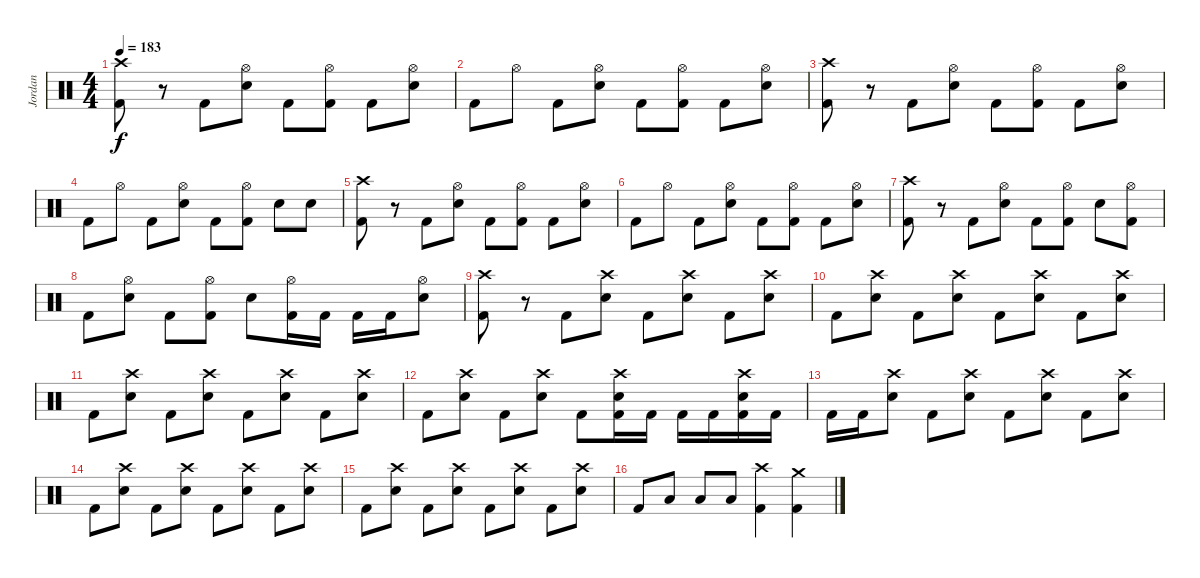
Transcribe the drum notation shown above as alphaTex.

\track ("Jordan" "Jordan") {instrument percussion bank 82}
\staff {score}
\articulation defaults
\ts (4 4)
\tempo 183
\clef neutral
\ks c
("Crash high (hit)" "Kick (hit) 2").8{dy f} r.8 "Kick (hit) 2".8{beam merge} ("Hi-Hat (open)" "Snare (hit) 2").8 "Kick (hit) 2".8{beam merge} ("Hi-Hat (open)" "Kick (hit) 2").8 "Kick (hit) 2".8{beam merge} ("Hi-Hat (open)" "Snare (hit) 2").8 |
"Kick (hit) 2".8{beam merge} "Hi-Hat (open)".8 "Kick (hit) 2".8{beam merge} ("Hi-Hat (open)" "Snare (hit) 2").8 "Kick (hit) 2".8{beam merge} ("Hi-Hat (open)" "Kick (hit) 2").8 "Kick (hit) 2".8{beam merge} ("Hi-Hat (open)" "Snare (hit) 2").8 |
("Crash high (hit)" "Kick (hit) 2").8 r.8 "Kick (hit) 2".8{beam merge} ("Hi-Hat (open)" "Snare (hit) 2").8 "Kick (hit) 2".8{beam merge} ("Hi-Hat (open)" "Kick (hit) 2").8 "Kick (hit) 2".8{beam merge} ("Hi-Hat (open)" "Snare (hit) 2").8 |
"Kick (hit) 2".8{beam merge} "Hi-Hat (open)".8 "Kick (hit) 2".8{beam merge} ("Hi-Hat (open)" "Snare (hit) 2").8 "Kick (hit) 2".8{beam merge} ("Hi-Hat (open)" "Kick (hit) 2").8 "Snare (hit) 2".8{beam merge} "Snare (hit) 2".8 |
("Crash high (hit)" "Kick (hit) 2").8 r.8 "Kick (hit) 2".8{beam merge} ("Hi-Hat (open)" "Snare (hit) 2").8 "Kick (hit) 2".8{beam merge} ("Hi-Hat (open)" "Kick (hit) 2").8 "Kick (hit) 2".8{beam merge} ("Hi-Hat (open)" "Snare (hit) 2").8 |
"Kick (hit) 2".8{beam merge} "Hi-Hat (open)".8 "Kick (hit) 2".8{beam merge} ("Hi-Hat (open)" "Snare (hit) 2").8 "Kick (hit) 2".8{beam merge} ("Hi-Hat (open)" "Kick (hit) 2").8 "Kick (hit) 2".8{beam merge} ("Hi-Hat (open)" "Snare (hit) 2").8 |
("Crash high (hit)" "Kick (hit) 2").8 r.8 "Kick (hit) 2".8{beam merge} ("Hi-Hat (open)" "Snare (hit) 2").8 "Kick (hit) 2".8{beam merge} ("Hi-Hat (open)" "Kick (hit) 2").8 "Snare (hit) 2".8{beam merge} ("Hi-Hat (open)" "Kick (hit) 2").8 |
"Kick (hit) 2".8{beam merge} ("Hi-Hat (open)" "Snare (hit) 2").8 "Kick (hit) 2".8{beam merge} ("Hi-Hat (open)" "Kick (hit) 2").8 "Snare (hit) 2".8{beam merge} ("Hi-Hat (open)" "Kick (hit) 2").16 "Kick (hit) 2".16 "Kick (hit) 2".16 "Kick (hit) 2".16 ("Hi-Hat (open)" "Snare (hit) 2").8 |
("Crash high (hit)" "Kick (hit) 2").8 r.8 "Kick (hit) 2".8{beam merge} ("Crash high (hit)" "Snare (hit) 2").8 "Kick (hit) 2".8{beam merge} ("Crash high (hit)" "Snare (hit) 2").8 "Kick (hit) 2".8{beam merge} ("Crash high (hit)" "Snare (hit) 2").8 |
"Kick (hit) 2".8{beam merge} ("Crash high (hit)" "Snare (hit) 2").8 "Kick (hit) 2".8{beam merge} ("Crash high (hit)" "Snare (hit) 2").8 "Kick (hit) 2".8{beam merge} ("Crash high (hit)" "Snare (hit) 2").8 "Kick (hit) 2".8{beam merge} ("Crash high (hit)" "Snare (hit) 2").8 |
"Kick (hit) 2".8{beam merge} ("Crash high (hit)" "Snare (hit) 2").8 "Kick (hit) 2".8{beam merge} ("Crash high (hit)" "Snare (hit) 2").8 "Kick (hit) 2".8{beam merge} ("Crash high (hit)" "Snare (hit) 2").8 "Kick (hit) 2".8{beam merge} ("Crash high (hit)" "Snare (hit) 2").8 |
"Kick (hit) 2".8{beam merge} ("Crash high (hit)" "Snare (hit) 2").8 "Kick (hit) 2".8{beam merge} ("Crash high (hit)" "Snare (hit) 2").8 "Kick (hit) 2".8{beam merge} ("Crash high (hit)" "Snare (hit) 2" "Kick (hit) 2").16 "Kick (hit) 2".16 "Kick (hit) 2".16{beam merge} "Kick (hit) 2".16{beam merge} ("Crash high (hit)" "Snare (hit) 2" "Kick (hit) 2").16 "Kick (hit) 2".16 |
"Kick (hit) 2".16 "Kick (hit) 2".16{beam merge} ("Crash high (hit)" "Snare (hit) 2").8 "Kick (hit) 2".8{beam merge} ("Crash high (hit)" "Snare (hit) 2").8 "Kick (hit) 2".8{beam merge} ("Crash high (hit)" "Snare (hit) 2").8 "Kick (hit) 2".8{beam merge} ("Crash high (hit)" "Snare (hit) 2").8 |
"Kick (hit) 2".8{beam merge} ("Crash high (hit)" "Snare (hit) 2").8 "Kick (hit) 2".8{beam merge} ("Crash high (hit)" "Snare (hit) 2").8 "Kick (hit) 2".8{beam merge} ("Crash high (hit)" "Snare (hit) 2").8 "Kick (hit) 2".8{beam merge} ("Crash high (hit)" "Snare (hit) 2").8 |
"Kick (hit) 2".8{beam merge} ("Crash high (hit)" "Snare (hit) 2").8 "Kick (hit) 2".8{beam merge} ("Crash high (hit)" "Snare (hit) 2").8 "Kick (hit) 2".8{beam merge} ("Crash high (hit)" "Snare (hit) 2").8 "Kick (hit) 2".8{beam merge} ("Crash high (hit)" "Snare (hit) 2").8 |
"Kick (hit) 2".8{beam merge} "Low Tom (hit)".8 "Low Tom (hit)".8 "Low Tom (hit)".8 ("Crash high (hit)" "Kick (hit) 2").4 ("Crash medium (hit)" "Kick (hit) 2").4
